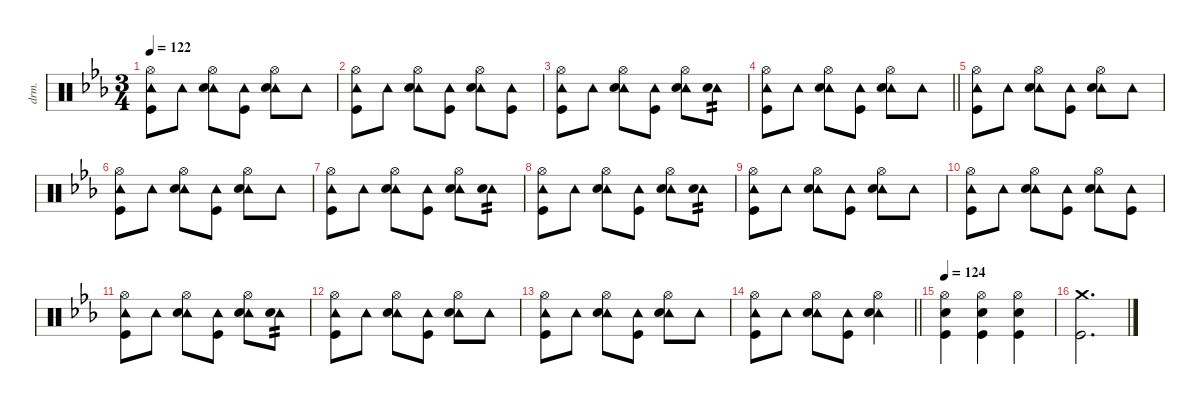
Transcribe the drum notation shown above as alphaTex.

\defaultSystemsLayout 4
\hideDynamics
\bracketExtendMode nobrackets
\otherSystemsTrackNameOrientation horizontal
\track ("Drums" "drm.") {defaultSystemsLayout 4 instrument percussion}
\staff {score}
\articulation defaults
\ts (3 4)
\tempo 122
\clef neutral
\ks eb
("Tambourine (hit)"{acc forcenatural} "Hi-Hat (open)"{acc forcenatural} "Kick (hit)"{acc forcenatural}).8{dy p beam Down} "Tambourine (hit)"{acc forcenatural}.8{dy pp beam Down} ("Tambourine (hit)"{acc forcenatural} "Hi-Hat (open)"{acc forcenatural} "Snare (hit) 2"{acc forcenatural}).8{beam Down} ("Tambourine (hit)"{acc forcenatural} "Kick (hit)"{acc forcenatural}).8{beam Down} ("Tambourine (hit)"{acc forcenatural} "Hi-Hat (open)"{acc forcenatural} "Snare (hit) 2"{acc forcenatural}).8{beam Down} "Tambourine (hit)"{acc forcenatural}.8{beam Down} |
("Tambourine (hit)"{acc forcenatural} "Hi-Hat (open)"{acc forcenatural} "Kick (hit)"{acc forcenatural}).8{beam Down} "Tambourine (hit)"{acc forcenatural}.8{beam Down} ("Tambourine (hit)"{acc forcenatural} "Hi-Hat (open)"{acc forcenatural} "Snare (hit) 2"{acc forcenatural}).8{beam Down} ("Tambourine (hit)"{acc forcenatural} "Kick (hit)"{acc forcenatural}).8{beam Down} ("Tambourine (hit)"{acc forcenatural} "Hi-Hat (open)"{acc forcenatural} "Snare (hit) 2"{acc forcenatural}).8{beam Down} ("Tambourine (hit)"{acc forcenatural} "Kick (hit)"{acc forcenatural}).8{beam Down} |
("Tambourine (hit)"{acc forcenatural} "Hi-Hat (open)"{acc forcenatural} "Kick (hit)"{acc forcenatural}).8{dy p beam Down} "Tambourine (hit)"{acc forcenatural}.8{dy pp beam Down} ("Tambourine (hit)"{acc forcenatural} "Hi-Hat (open)"{acc forcenatural} "Snare (hit) 2"{acc forcenatural}).8{beam Down} ("Tambourine (hit)"{acc forcenatural} "Kick (hit)"{acc forcenatural}).8{beam Down} ("Tambourine (hit)"{acc forcenatural} "Hi-Hat (open)"{acc forcenatural} "Snare (hit) 2"{acc forcenatural}).8{beam Down} ("Tambourine (hit)"{acc forcenatural} "Snare (hit) 2"{acc forcenatural}).8{tp 2 beam Down} |
\barLineRight lightlight
("Tambourine (hit)"{acc forcenatural} "Hi-Hat (open)"{acc forcenatural} "Kick (hit)"{acc forcenatural}).8{dy p beam Down} "Tambourine (hit)"{acc forcenatural}.8{dy pp beam Down} ("Tambourine (hit)"{acc forcenatural} "Hi-Hat (open)"{acc forcenatural} "Snare (hit) 2"{acc forcenatural}).8{beam Down} ("Tambourine (hit)"{acc forcenatural} "Kick (hit)"{acc forcenatural}).8{beam Down} ("Tambourine (hit)"{acc forcenatural} "Hi-Hat (open)"{acc forcenatural} "Snare (hit) 2"{acc forcenatural}).8{beam Down} "Tambourine (hit)"{acc forcenatural}.8{beam Down} |
("Tambourine (hit)"{acc forcenatural} "Hi-Hat (open)"{acc forcenatural} "Kick (hit)"{acc forcenatural}).8{dy p beam Down} "Tambourine (hit)"{acc forcenatural}.8{dy pp beam Down} ("Tambourine (hit)"{acc forcenatural} "Hi-Hat (open)"{acc forcenatural} "Snare (hit) 2"{acc forcenatural}).8{beam Down} ("Tambourine (hit)"{acc forcenatural} "Kick (hit)"{acc forcenatural}).8{beam Down} ("Tambourine (hit)"{acc forcenatural} "Hi-Hat (open)"{acc forcenatural} "Snare (hit) 2"{acc forcenatural}).8{beam Down} "Tambourine (hit)"{acc forcenatural}.8{beam Down} |
("Tambourine (hit)"{acc forcenatural} "Hi-Hat (open)"{acc forcenatural} "Kick (hit)"{acc forcenatural}).8{dy p beam Down} "Tambourine (hit)"{acc forcenatural}.8{dy pp beam Down} ("Tambourine (hit)"{acc forcenatural} "Hi-Hat (open)"{acc forcenatural} "Snare (hit) 2"{acc forcenatural}).8{beam Down} ("Tambourine (hit)"{acc forcenatural} "Kick (hit)"{acc forcenatural}).8{beam Down} ("Tambourine (hit)"{acc forcenatural} "Hi-Hat (open)"{acc forcenatural} "Snare (hit) 2"{acc forcenatural}).8{beam Down} "Tambourine (hit)"{acc forcenatural}.8{beam Down} |
("Tambourine (hit)"{acc forcenatural} "Hi-Hat (open)"{acc forcenatural} "Kick (hit)"{acc forcenatural}).8{dy p beam Down} "Tambourine (hit)"{acc forcenatural}.8{dy pp beam Down} ("Tambourine (hit)"{acc forcenatural} "Hi-Hat (open)"{acc forcenatural} "Snare (hit) 2"{acc forcenatural}).8{beam Down} ("Tambourine (hit)"{acc forcenatural} "Kick (hit)"{acc forcenatural}).8{beam Down} ("Tambourine (hit)"{acc forcenatural} "Hi-Hat (open)"{acc forcenatural} "Snare (hit) 2"{acc forcenatural}).8{beam Down} ("Tambourine (hit)"{acc forcenatural} "Snare (hit) 2"{acc forcenatural}).8{tp 2 beam Down} |
("Tambourine (hit)"{acc forcenatural} "Hi-Hat (open)"{acc forcenatural} "Kick (hit)"{acc forcenatural}).8{beam Down} "Tambourine (hit)"{acc forcenatural}.8{beam Down} ("Tambourine (hit)"{acc forcenatural} "Hi-Hat (open)"{acc forcenatural} "Snare (hit) 2"{acc forcenatural}).8{beam Down} ("Tambourine (hit)"{acc forcenatural} "Kick (hit)"{acc forcenatural}).8{beam Down} ("Tambourine (hit)"{acc forcenatural} "Hi-Hat (open)"{acc forcenatural} "Snare (hit) 2"{acc forcenatural}).8{beam Down} ("Tambourine (hit)"{acc forcenatural} "Snare (hit) 2"{acc forcenatural}).8{tp 2 beam Down} |
("Tambourine (hit)"{acc forcenatural} "Hi-Hat (open)"{acc forcenatural} "Kick (hit)"{acc forcenatural}).8{dy p beam Down} "Tambourine (hit)"{acc forcenatural}.8{dy pp beam Down} ("Tambourine (hit)"{acc forcenatural} "Hi-Hat (open)"{acc forcenatural} "Snare (hit) 2"{acc forcenatural}).8{beam Down} ("Tambourine (hit)"{acc forcenatural} "Kick (hit)"{acc forcenatural}).8{beam Down} ("Tambourine (hit)"{acc forcenatural} "Hi-Hat (open)"{acc forcenatural} "Snare (hit) 2"{acc forcenatural}).8{beam Down} "Tambourine (hit)"{acc forcenatural}.8{beam Down} |
("Tambourine (hit)"{acc forcenatural} "Hi-Hat (open)"{acc forcenatural} "Kick (hit)"{acc forcenatural}).8{beam Down} "Tambourine (hit)"{acc forcenatural}.8{beam Down} ("Tambourine (hit)"{acc forcenatural} "Hi-Hat (open)"{acc forcenatural} "Snare (hit) 2"{acc forcenatural}).8{beam Down} ("Tambourine (hit)"{acc forcenatural} "Kick (hit)"{acc forcenatural}).8{beam Down} ("Tambourine (hit)"{acc forcenatural} "Hi-Hat (open)"{acc forcenatural} "Snare (hit) 2"{acc forcenatural}).8{beam Down} ("Tambourine (hit)"{acc forcenatural} "Kick (hit)"{acc forcenatural}).8{beam Down} |
("Tambourine (hit)"{acc forcenatural} "Hi-Hat (open)"{acc forcenatural} "Kick (hit)"{acc forcenatural}).8{dy p beam Down} "Tambourine (hit)"{acc forcenatural}.8{dy pp beam Down} ("Tambourine (hit)"{acc forcenatural} "Hi-Hat (open)"{acc forcenatural} "Snare (hit) 2"{acc forcenatural}).8{beam Down} ("Tambourine (hit)"{acc forcenatural} "Kick (hit)"{acc forcenatural}).8{beam Down} ("Tambourine (hit)"{acc forcenatural} "Hi-Hat (open)"{acc forcenatural} "Snare (hit) 2"{acc forcenatural}).8{beam Down} ("Tambourine (hit)"{acc forcenatural} "Snare (hit) 2"{acc forcenatural}).8{tp 2 beam Down} |
("Tambourine (hit)"{acc forcenatural} "Hi-Hat (open)"{acc forcenatural} "Kick (hit)"{acc forcenatural}).8{dy p beam Down} "Tambourine (hit)"{acc forcenatural}.8{dy pp beam Down} ("Tambourine (hit)"{acc forcenatural} "Hi-Hat (open)"{acc forcenatural} "Snare (hit) 2"{acc forcenatural}).8{beam Down} ("Tambourine (hit)"{acc forcenatural} "Kick (hit)"{acc forcenatural}).8{beam Down} ("Tambourine (hit)"{acc forcenatural} "Hi-Hat (open)"{acc forcenatural} "Snare (hit) 2"{acc forcenatural}).8{beam Down} "Tambourine (hit)"{acc forcenatural}.8{beam Down} |
("Tambourine (hit)"{acc forcenatural} "Hi-Hat (open)"{acc forcenatural} "Kick (hit)"{acc forcenatural}).8{dy p beam Down} "Tambourine (hit)"{acc forcenatural}.8{dy pp beam Down} ("Tambourine (hit)"{acc forcenatural} "Hi-Hat (open)"{acc forcenatural} "Snare (hit) 2"{acc forcenatural}).8{beam Down} ("Tambourine (hit)"{acc forcenatural} "Kick (hit)"{acc forcenatural}).8{beam Down} ("Tambourine (hit)"{acc forcenatural} "Hi-Hat (open)"{acc forcenatural} "Snare (hit) 2"{acc forcenatural}).8{beam Down} "Tambourine (hit)"{acc forcenatural}.8{beam Down} |
\barLineRight lightlight
("Tambourine (hit)"{acc forcenatural} "Hi-Hat (open)"{acc forcenatural} "Kick (hit)"{acc forcenatural}).8{dy p beam Down} "Tambourine (hit)"{acc forcenatural}.8{dy pp beam Down} ("Tambourine (hit)"{acc forcenatural} "Hi-Hat (open)"{acc forcenatural} "Snare (hit) 2"{acc forcenatural}).8{beam Down} ("Tambourine (hit)"{acc forcenatural} "Kick (hit)"{acc forcenatural}).8{beam Down} ("Tambourine (hit)"{acc forcenatural} "Hi-Hat (open)"{acc forcenatural} "Snare (hit) 2"{acc forcenatural}).4{beam Down} |
\tempo 124
("Hi-Hat (open)"{acc forcenatural} "Snare (hit) 2"{acc forcenatural} "Kick (hit)"{acc forcenatural}).4{dy f beam Down} ("Hi-Hat (open)"{acc forcenatural} "Snare (hit) 2"{acc forcenatural} "Kick (hit)"{acc forcenatural}).4{beam Down} ("Hi-Hat (open)"{acc forcenatural} "Snare (hit) 2"{acc forcenatural} "Kick (hit)"{acc forcenatural}).4{beam Down} |
("Crash medium (hit)"{acc forcenatural} "Kick (hit)"{acc forcenatural}).2{d beam Down}
